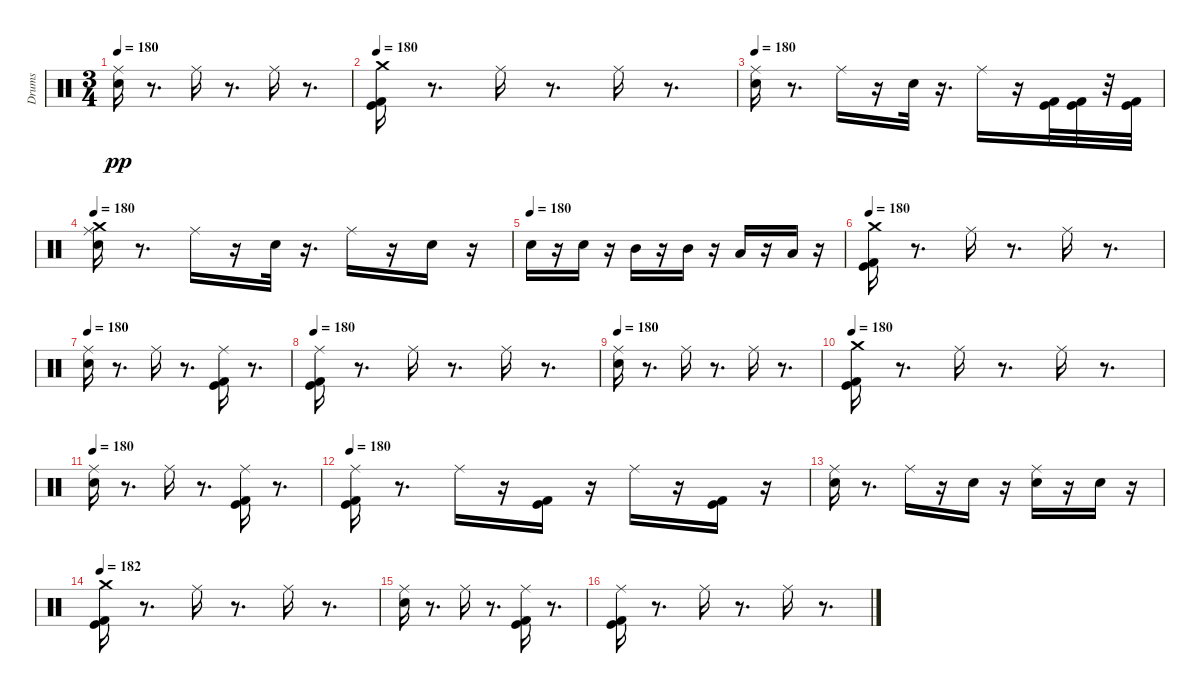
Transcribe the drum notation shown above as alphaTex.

\track ("Drums" "Drums") {instrument percussion}
\staff {score}
\articulation defaults
\ts (3 4)
\tempo 180
\clef neutral
\ks c
("Ride (middle)" "Snare (hit) 2").16{dy pp} r.8{d} "Ride (middle)".16 r.8{d} "Ride (middle)".16 r.8{d} |
\tempo 180
("Crash medium (hit)" "Kick (hit) 2" "Kick (hit)").16 r.8{d} "Ride (middle)".16 r.8{d} "Ride (middle)".16 r.8{d} |
\tempo 180
("Ride (middle)" "Snare (hit) 2").16 r.8{d} "Ride (middle)".16 r.16 "Snare (hit) 2".32 r.16{d} "Ride (middle)".16 r.16 ("Kick (hit)" "Kick (hit) 2").32 ("Kick (hit)" "Kick (hit) 2").32 r.32 ("Kick (hit)" "Kick (hit) 2").32 |
\tempo 180
("Ride (middle)" "Crash medium (hit)" "Snare (hit) 2").16 r.8{d} "Ride (middle)".16 r.16 "Snare (hit) 2".32 r.16{d} "Ride (middle)".16 r.16 "Snare (hit) 2".16 r.16 |
\tempo (180)
"Snare (hit) 2".16 r.16 "Snare (hit) 2".16 r.16 "Mid Tom (hit)".16 r.16 "Mid Tom (hit)".16 r.16 "Low Tom (hit)".16 r.16 "Low Tom (hit)".16 r.16 |
\tempo 180
("Crash medium (hit)" "Kick (hit) 2" "Kick (hit)").16 r.8{d} "Ride (middle)".16 r.8{d} "Ride (middle)".16 r.8{d} |
\tempo 180
("Ride (middle)" "Snare (hit) 2").16 r.8{d} "Ride (middle)".16 r.8{d} ("Ride (middle)" "Kick (hit) 2" "Kick (hit)").16 r.8{d} |
\tempo 180
("Ride (middle)" "Kick (hit) 2" "Kick (hit)").16 r.8{d} "Ride (middle)".16 r.8{d} "Ride (middle)".16 r.8{d} |
\tempo 180
("Ride (middle)" "Snare (hit) 2").16 r.8{d} "Ride (middle)".16 r.8{d} "Ride (middle)".16 r.8{d} |
\tempo 180
("Crash medium (hit)" "Kick (hit) 2" "Kick (hit)").16 r.8{d} "Ride (middle)".16 r.8{d} "Ride (middle)".16 r.8{d} |
\tempo 180
("Ride (middle)" "Snare (hit) 2").16 r.8{d} "Ride (middle)".16 r.8{d} ("Ride (middle)" "Kick (hit) 2" "Kick (hit)").16 r.8{d} |
\tempo 180
("Ride (middle)" "Kick (hit) 2" "Kick (hit)").16 r.8{d} "Ride (middle)".16 r.16 ("Kick (hit)" "Kick (hit) 2").16 r.16 "Ride (middle)".16 r.16 ("Kick (hit)" "Kick (hit) 2").16 r.16 |
("Ride (middle)" "Snare (hit) 2").16 r.8{d} "Ride (middle)".16 r.16 "Snare (hit) 2".16 r.16 ("Snare (hit) 2" "Ride (middle)").16 r.16 "Snare (hit) 2".16 r.16 |
\tempo 182
("Crash medium (hit)" "Kick (hit) 2" "Kick (hit)").16 r.8{d} "Ride (middle)".16 r.8{d} "Ride (middle)".16 r.8{d} |
("Ride (middle)" "Snare (hit) 2").16 r.8{d} "Ride (middle)".16 r.8{d} ("Ride (middle)" "Kick (hit) 2" "Kick (hit)").16 r.8{d} |
("Ride (middle)" "Kick (hit) 2" "Kick (hit)").16 r.8{d} "Ride (middle)".16 r.8{d} "Ride (middle)".16 r.8{d}
